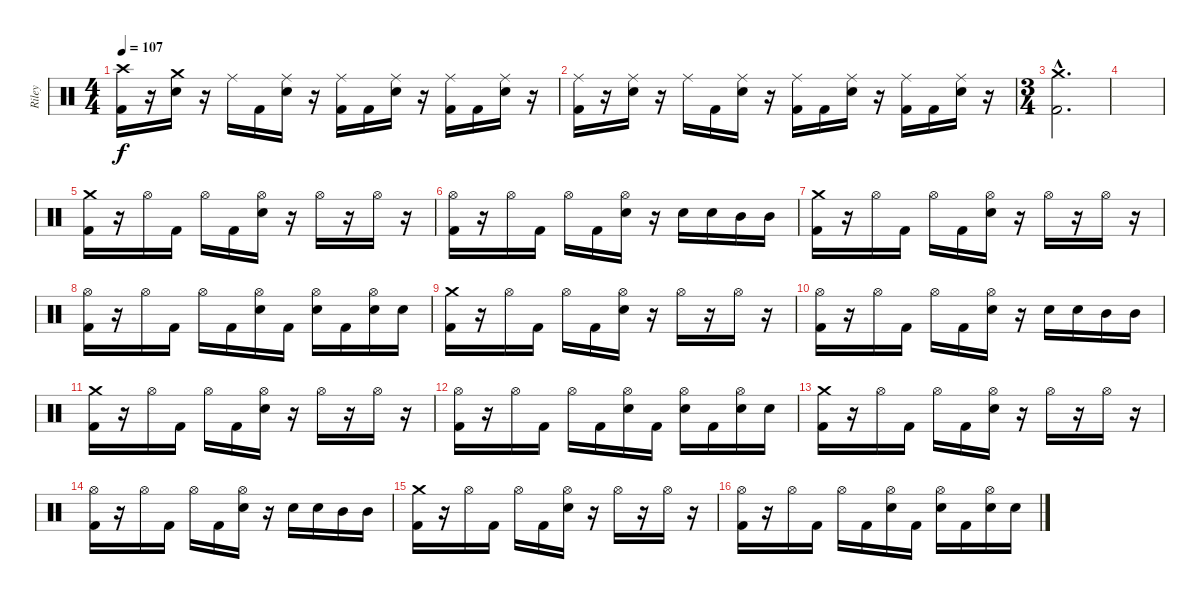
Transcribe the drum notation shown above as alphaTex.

\track ("Riley" "Riley") {instrument percussion}
\staff {score}
\articulation defaults
\ts (4 4)
\tempo 107
\clef neutral
\ks c
("Crash high (hit)" "Kick (hit) 2").16{dy f} r.16 ("Crash medium (hit)" "Electric Snare (hit)").16 r.16 "Ride (middle)".16 "Kick (hit) 2".16 ("Ride (middle)" "Electric Snare (hit)").16 r.16 ("Ride (middle)" "Kick (hit) 2").16 "Kick (hit) 2".16 ("Ride (middle)" "Electric Snare (hit)").16 r.16 ("Ride (middle)" "Kick (hit) 2").16 "Kick (hit) 2".16 ("Ride (middle)" "Electric Snare (hit)").16 r.16 |
("Ride (middle)" "Kick (hit) 2").16 r.16 ("Ride (middle)" "Electric Snare (hit)").16 r.16 "Ride (middle)".16 "Kick (hit) 2".16 ("Ride (middle)" "Electric Snare (hit)").16 r.16 ("Ride (middle)" "Kick (hit) 2").16 "Kick (hit) 2".16 ("Ride (middle)" "Electric Snare (hit)").16 r.16 ("Ride (middle)" "Kick (hit) 2").16 "Kick (hit) 2".16 ("Ride (middle)" "Electric Snare (hit)").16 r.16 |
\ts (3 4)
("Crash medium (hit)"{hac} "Kick (hit) 2"{hac}).2{d} |
|
("Crash medium (hit)" "Kick (hit) 2").16 r.16 "Hi-Hat (open)".16 "Kick (hit) 2".16 "Hi-Hat (open)".16 "Kick (hit) 2".16 ("Hi-Hat (open)" "Electric Snare (hit)").16 r.16 "Hi-Hat (open)".16 r.16 "Hi-Hat (open)".16 r.16 |
("Hi-Hat (open)" "Kick (hit) 2").16 r.16 "Hi-Hat (open)".16 "Kick (hit) 2".16 "Hi-Hat (open)".16 "Kick (hit) 2".16 ("Hi-Hat (open)" "Electric Snare (hit)").16 r.16 "Electric Snare (hit)".16 "Electric Snare (hit)".16 "Mid Tom (hit)".16 "Mid Tom (hit)".16 |
("Crash medium (hit)" "Kick (hit) 2").16 r.16 "Hi-Hat (open)".16 "Kick (hit) 2".16 "Hi-Hat (open)".16 "Kick (hit) 2".16 ("Hi-Hat (open)" "Electric Snare (hit)").16 r.16 "Hi-Hat (open)".16 r.16 "Hi-Hat (open)".16 r.16 |
("Hi-Hat (open)" "Kick (hit) 2").16 r.16 "Hi-Hat (open)".16 "Kick (hit) 2".16 "Hi-Hat (open)".16 "Kick (hit) 2".16 ("Hi-Hat (open)" "Electric Snare (hit)").16 "Kick (hit) 2".16 ("Hi-Hat (open)" "Electric Snare (hit)").16 "Kick (hit) 2".16 ("Hi-Hat (open)" "Electric Snare (hit)").16 "Electric Snare (hit)".16 |
("Crash medium (hit)" "Kick (hit) 2").16 r.16 "Hi-Hat (open)".16 "Kick (hit) 2".16 "Hi-Hat (open)".16 "Kick (hit) 2".16 ("Hi-Hat (open)" "Electric Snare (hit)").16 r.16 "Hi-Hat (open)".16 r.16 "Hi-Hat (open)".16 r.16 |
("Hi-Hat (open)" "Kick (hit) 2").16 r.16 "Hi-Hat (open)".16 "Kick (hit) 2".16 "Hi-Hat (open)".16 "Kick (hit) 2".16 ("Hi-Hat (open)" "Electric Snare (hit)").16 r.16 "Electric Snare (hit)".16 "Electric Snare (hit)".16 "Mid Tom (hit)".16 "Mid Tom (hit)".16 |
("Crash medium (hit)" "Kick (hit) 2").16 r.16 "Hi-Hat (open)".16 "Kick (hit) 2".16 "Hi-Hat (open)".16 "Kick (hit) 2".16 ("Hi-Hat (open)" "Electric Snare (hit)").16 r.16 "Hi-Hat (open)".16 r.16 "Hi-Hat (open)".16 r.16 |
("Hi-Hat (open)" "Kick (hit) 2").16 r.16 "Hi-Hat (open)".16 "Kick (hit) 2".16 "Hi-Hat (open)".16 "Kick (hit) 2".16 ("Hi-Hat (open)" "Electric Snare (hit)").16 "Kick (hit) 2".16 ("Hi-Hat (open)" "Electric Snare (hit)").16 "Kick (hit) 2".16 ("Hi-Hat (open)" "Electric Snare (hit)").16 "Electric Snare (hit)".16 |
("Crash medium (hit)" "Kick (hit) 2").16 r.16 "Hi-Hat (open)".16 "Kick (hit) 2".16 "Hi-Hat (open)".16 "Kick (hit) 2".16 ("Hi-Hat (open)" "Electric Snare (hit)").16 r.16 "Hi-Hat (open)".16 r.16 "Hi-Hat (open)".16 r.16 |
("Hi-Hat (open)" "Kick (hit) 2").16 r.16 "Hi-Hat (open)".16 "Kick (hit) 2".16 "Hi-Hat (open)".16 "Kick (hit) 2".16 ("Hi-Hat (open)" "Electric Snare (hit)").16 r.16 "Electric Snare (hit)".16 "Electric Snare (hit)".16 "Mid Tom (hit)".16 "Mid Tom (hit)".16 |
("Crash medium (hit)" "Kick (hit) 2").16 r.16 "Hi-Hat (open)".16 "Kick (hit) 2".16 "Hi-Hat (open)".16 "Kick (hit) 2".16 ("Hi-Hat (open)" "Electric Snare (hit)").16 r.16 "Hi-Hat (open)".16 r.16 "Hi-Hat (open)".16 r.16 |
("Hi-Hat (open)" "Kick (hit) 2").16 r.16 "Hi-Hat (open)".16 "Kick (hit) 2".16 "Hi-Hat (open)".16 "Kick (hit) 2".16 ("Hi-Hat (open)" "Electric Snare (hit)").16 "Kick (hit) 2".16 ("Hi-Hat (open)" "Electric Snare (hit)").16 "Kick (hit) 2".16 ("Hi-Hat (open)" "Electric Snare (hit)").16 "Electric Snare (hit)".16
